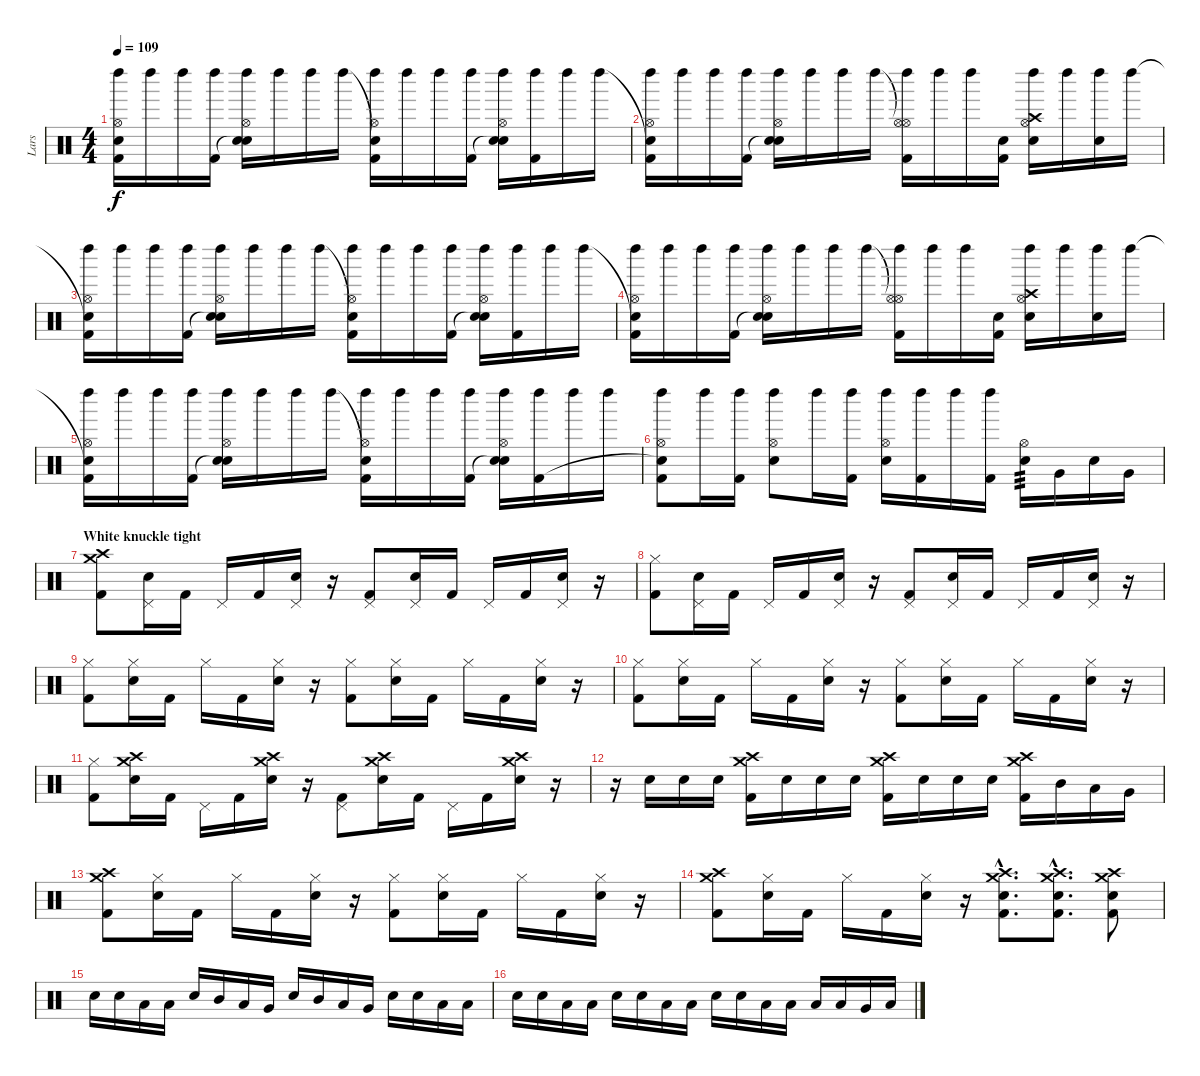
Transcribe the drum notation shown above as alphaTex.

\track ("Lars" "Lars") {instrument percussion}
\staff {score}
\articulation defaults
\ts (4 4)
\tempo 109
\clef neutral
\ks c
("Snare (hit)"{t} "Hi-Hat (open)" "Left Maraca (hit)" "Kick (hit) 2").16{dy f} "Left Maraca (hit)".16 "Left Maraca (hit)".16 ("Left Maraca (hit)" "Kick (hit) 2").16 ("Hi-Hat (open)" "Snare (hit)"{t} "Electric Snare (hit)" "Left Maraca (hit)").16 "Left Maraca (hit)".16 "Left Maraca (hit)".16 "Left Maraca (hit)".16 ("Snare (hit)"{t} "Hi-Hat (open)" "Left Maraca (hit)" "Kick (hit) 2").16 "Left Maraca (hit)".16 "Left Maraca (hit)".16 ("Left Maraca (hit)" "Kick (hit) 2").16 ("Hi-Hat (open)" "Snare (hit)"{t} "Electric Snare (hit)" "Left Maraca (hit)").16 ("Left Maraca (hit)" "Kick (hit) 2").16 "Left Maraca (hit)".16 "Left Maraca (hit)".16 |
("Snare (hit)"{t} "Hi-Hat (open)" "Left Maraca (hit)" "Kick (hit) 2").16 "Left Maraca (hit)".16 "Left Maraca (hit)".16 ("Left Maraca (hit)" "Kick (hit) 2").16 ("Hi-Hat (open)" "Snare (hit)"{t} "Electric Snare (hit)" "Left Maraca (hit)").16 "Left Maraca (hit)".16 "Left Maraca (hit)".16 "Left Maraca (hit)".16 ("Hi-Hat (open)"{t} "Hi-Hat (open)" "Left Maraca (hit)" "Kick (hit) 2").16 "Left Maraca (hit)".16 "Left Maraca (hit)".16 ("Snare (hit)" "Kick (hit) 2").16 ("Hi-Hat (open)" "Crash high (hit)" "Electric Snare (hit)" "Left Maraca (hit)").16 "Left Maraca (hit)".16 ("Electric Snare (hit)" "Left Maraca (hit)").16 "Left Maraca (hit)".16 |
("Snare (hit)"{t} "Hi-Hat (open)" "Left Maraca (hit)" "Kick (hit) 2").16 "Left Maraca (hit)".16 "Left Maraca (hit)".16 ("Left Maraca (hit)" "Kick (hit) 2").16 ("Hi-Hat (open)" "Snare (hit)"{t} "Electric Snare (hit)" "Left Maraca (hit)").16 "Left Maraca (hit)".16 "Left Maraca (hit)".16 "Left Maraca (hit)".16 ("Snare (hit)"{t} "Hi-Hat (open)" "Left Maraca (hit)" "Kick (hit) 2").16 "Left Maraca (hit)".16 "Left Maraca (hit)".16 ("Left Maraca (hit)" "Kick (hit) 2").16 ("Hi-Hat (open)" "Snare (hit)"{t} "Electric Snare (hit)" "Left Maraca (hit)").16 ("Left Maraca (hit)" "Kick (hit) 2").16 "Left Maraca (hit)".16 "Left Maraca (hit)".16 |
("Snare (hit)"{t} "Hi-Hat (open)" "Left Maraca (hit)" "Kick (hit) 2").16 "Left Maraca (hit)".16 "Left Maraca (hit)".16 ("Left Maraca (hit)" "Kick (hit) 2").16 ("Hi-Hat (open)" "Snare (hit)"{t} "Electric Snare (hit)" "Left Maraca (hit)").16 "Left Maraca (hit)".16 "Left Maraca (hit)".16 "Left Maraca (hit)".16 ("Hi-Hat (open)"{t} "Hi-Hat (open)" "Left Maraca (hit)" "Kick (hit) 2").16 "Left Maraca (hit)".16 "Left Maraca (hit)".16 ("Snare (hit)" "Kick (hit) 2").16 ("Hi-Hat (open)" "Crash high (hit)" "Electric Snare (hit)" "Left Maraca (hit)").16 "Left Maraca (hit)".16 ("Electric Snare (hit)" "Left Maraca (hit)").16 "Left Maraca (hit)".16 |
("Snare (hit)"{t} "Hi-Hat (open)" "Left Maraca (hit)" "Kick (hit) 2").16 "Left Maraca (hit)".16 "Left Maraca (hit)".16 ("Left Maraca (hit)" "Kick (hit) 2").16 ("Hi-Hat (open)" "Snare (hit)"{t} "Electric Snare (hit)" "Left Maraca (hit)").16 "Left Maraca (hit)".16 "Left Maraca (hit)".16 "Left Maraca (hit)".16 ("Snare (hit)"{t} "Hi-Hat (open)" "Left Maraca (hit)" "Kick (hit) 2").16 "Left Maraca (hit)".16 "Left Maraca (hit)".16 ("Left Maraca (hit)" "Kick (hit) 2").16 ("Hi-Hat (open)" "Snare (hit)"{t} "Electric Snare (hit)" "Left Maraca (hit)").16 ("Left Maraca (hit)" "Kick (hit) 2").16 "Left Maraca (hit)".16 "Left Maraca (hit)".16 |
("Hi-Hat (open)" "Snare (hit)"{t} "Left Maraca (hit)" "Kick (hit) 2").8 "Left Maraca (hit)".16 ("Left Maraca (hit)" "Kick (hit) 2").16 ("Hi-Hat (open)" "Electric Snare (hit)" "Left Maraca (hit)").8 "Left Maraca (hit)".16 ("Left Maraca (hit)" "Kick (hit) 2").16 ("Hi-Hat (open)" "Electric Snare (hit)" "Left Maraca (hit)").16 ("Left Maraca (hit)" "Kick (hit) 2").16 "Left Maraca (hit)".16 ("Left Maraca (hit)" "Kick (hit) 2").16 ("Hi-Hat (open)" "Electric Snare (hit)").16{tp 3} "Very Low Tom (hit)".16 "Electric Snare (hit)".16 "Very Low Tom (hit)".16 |
\section ("" "White knuckle tight")
("Crash high (hit)" "Crash medium (hit)" "Kick (hit) 2").8 ("Pedal Hi-Hat (hit)" "Electric Snare (hit)").16 "Kick (hit) 2".16 "Pedal Hi-Hat (hit)".16 "Kick (hit) 2".16 ("Pedal Hi-Hat (hit)" "Electric Snare (hit)").16 r.16 ("Pedal Hi-Hat (hit)" "Kick (hit) 2").8 ("Pedal Hi-Hat (hit)" "Electric Snare (hit)").16 "Kick (hit) 2".16 "Pedal Hi-Hat (hit)".16 "Kick (hit) 2".16 ("Pedal Hi-Hat (hit)" "Electric Snare (hit)").16 r.16 |
("Hi-Hat (closed)" "Kick (hit) 2").8 ("Pedal Hi-Hat (hit)" "Electric Snare (hit)").16 "Kick (hit) 2".16 "Pedal Hi-Hat (hit)".16 "Kick (hit) 2".16 ("Pedal Hi-Hat (hit)" "Electric Snare (hit)").16 r.16 ("Pedal Hi-Hat (hit)" "Kick (hit) 2").8 ("Pedal Hi-Hat (hit)" "Electric Snare (hit)").16 "Kick (hit) 2".16 "Pedal Hi-Hat (hit)".16 "Kick (hit) 2".16 ("Pedal Hi-Hat (hit)" "Electric Snare (hit)").16 r.16 |
("Hi-Hat (closed)" "Kick (hit) 2").8 ("Hi-Hat (closed)" "Electric Snare (hit)").16 "Kick (hit) 2".16 "Hi-Hat (closed)".16 "Kick (hit) 2".16 ("Hi-Hat (closed)" "Electric Snare (hit)").16 r.16 ("Hi-Hat (closed)" "Kick (hit) 2").8 ("Hi-Hat (closed)" "Electric Snare (hit)").16 "Kick (hit) 2".16 "Hi-Hat (closed)".16 "Kick (hit) 2".16 ("Hi-Hat (closed)" "Electric Snare (hit)").16 r.16 |
("Hi-Hat (closed)" "Kick (hit) 2").8 ("Hi-Hat (closed)" "Electric Snare (hit)").16 "Kick (hit) 2".16 "Hi-Hat (closed)".16 "Kick (hit) 2".16 ("Hi-Hat (closed)" "Electric Snare (hit)").16 r.16 ("Hi-Hat (closed)" "Kick (hit) 2").8 ("Hi-Hat (closed)" "Electric Snare (hit)").16 "Kick (hit) 2".16 "Hi-Hat (closed)".16 "Kick (hit) 2".16 ("Hi-Hat (closed)" "Electric Snare (hit)").16 r.16 |
("Hi-Hat (closed)" "Kick (hit) 2").8 ("Crash high (hit)" "Crash medium (hit)" "Electric Snare (hit)").16 "Kick (hit) 2".16 "Pedal Hi-Hat (hit)".16 "Kick (hit) 2".16 ("Crash medium (hit)" "Crash high (hit)" "Electric Snare (hit)").16 r.16 ("Pedal Hi-Hat (hit)" "Kick (hit) 2").8 ("Crash medium (hit)" "Crash high (hit)" "Electric Snare (hit)").16 "Kick (hit) 2".16 "Pedal Hi-Hat (hit)".16 "Kick (hit) 2".16 ("Crash high (hit)" "Crash medium (hit)" "Electric Snare (hit)").16 r.16 |
r.16 "Electric Snare (hit)".16 "Electric Snare (hit)".16 "Electric Snare (hit)".16 ("Crash high (hit)" "Crash medium (hit)" "Kick (hit) 2").16 "Electric Snare (hit)".16 "Electric Snare (hit)".16 "Electric Snare (hit)".16 ("Crash high (hit)" "Crash medium (hit)" "Kick (hit) 2").16 "Electric Snare (hit)".16 "Electric Snare (hit)".16 "Electric Snare (hit)".16 ("Crash high (hit)" "Crash medium (hit)" "Kick (hit) 2").16 "Mid Tom (hit)".16 "Low Tom (hit)".16 "Very Low Tom (hit)".16 |
("Crash high (hit)" "Crash medium (hit)" "Kick (hit) 2").8 ("Hi-Hat (closed)" "Electric Snare (hit)").16 "Kick (hit) 2".16 "Hi-Hat (closed)".16 "Kick (hit) 2".16 ("Hi-Hat (closed)" "Electric Snare (hit)").16 r.16 ("Hi-Hat (closed)" "Kick (hit) 2").8 ("Hi-Hat (closed)" "Electric Snare (hit)").16 "Kick (hit) 2".16 "Hi-Hat (closed)".16 "Kick (hit) 2".16 ("Hi-Hat (closed)" "Electric Snare (hit)").16 r.16 |
("Crash high (hit)" "Crash medium (hit)" "Kick (hit) 2").8 ("Hi-Hat (closed)" "Electric Snare (hit)").16 "Kick (hit) 2".16 "Hi-Hat (closed)".16 "Kick (hit) 2".16 ("Hi-Hat (closed)" "Electric Snare (hit)").16 r.16 ("Crash high (hit)"{hac} "Crash medium (hit)"{hac} "Electric Snare (hit)"{hac} "Kick (hit) 2"{hac}).8{d} ("Crash high (hit)"{hac} "Crash medium (hit)"{hac} "Electric Snare (hit)"{hac} "Kick (hit) 2"{hac}).8{d} ("Crash high (hit)" "Crash medium (hit)" "Electric Snare (hit)" "Kick (hit) 2").8 |
"Electric Snare (hit)".16 "Electric Snare (hit)".16 "Low Tom (hit)".16 "Low Tom (hit)".16 "Electric Snare (hit)".16 "Mid Tom (hit)".16 "Low Tom (hit)".16 "Very Low Tom (hit)".16 "Electric Snare (hit)".16 "Mid Tom (hit)".16 "Low Tom (hit)".16 "Very Low Tom (hit)".16 "Electric Snare (hit)".16 "Electric Snare (hit)".16 "Low Tom (hit)".16 "Low Floor Tom (hit)".16 |
"Electric Snare (hit)".16 "Electric Snare (hit)".16 "Low Tom (hit)".16 "Low Tom (hit)".16 "Electric Snare (hit)".16 "Electric Snare (hit)".16 "Low Floor Tom (hit)".16 "Low Floor Tom (hit)".16 "Electric Snare (hit)".16 "Electric Snare (hit)".16 "Low Tom (hit)".16 "Low Tom (hit)".16 "Low Tom (hit)".16 "Low Tom (hit)".16 "Very Low Tom (hit)".16 "Low Floor Tom (hit)".16
